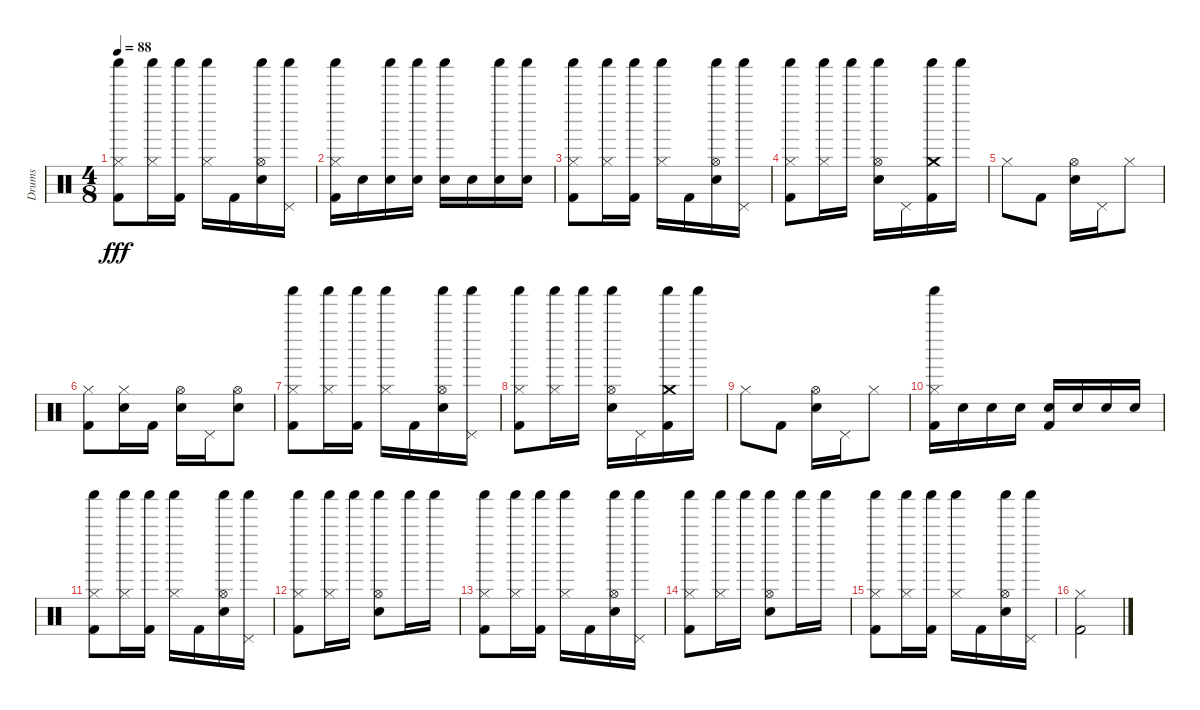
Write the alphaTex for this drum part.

\track ("Drums" "Drums") {instrument percussion}
\staff {score}
\articulation defaults
\ts (4 8)
\tempo 88
\clef neutral
\ks c
("Hi-Hat (closed)" "Shaker (hit)" "Kick (hit) 2").8{dy fff} ("Hi-Hat (closed)" "Shaker (hit)").16 ("Shaker (hit)" "Kick (hit) 2").16 ("Hi-Hat (closed)" "Shaker (hit)").16 "Kick (hit) 2".16 ("Hi-Hat (open)" "Shaker (hit)" "Snare (hit) 2").16 ("Pedal Hi-Hat (hit)" "Shaker (hit)").16 |
("Hi-Hat (closed)" "Shaker (hit)" "Kick (hit) 2").16 "Snare (hit) 2".16 ("Shaker (hit)" "Snare (hit) 2").16 ("Shaker (hit)" "Snare (hit) 2").16 ("Shaker (hit)" "Snare (hit) 2").16 "Snare (hit) 2".16 ("Shaker (hit)" "Snare (hit) 2").16 ("Shaker (hit)" "Snare (hit) 2").16 |
("Hi-Hat (closed)" "Shaker (hit)" "Kick (hit) 2").8 ("Hi-Hat (closed)" "Shaker (hit)").16 ("Shaker (hit)" "Kick (hit) 2").16 ("Hi-Hat (closed)" "Shaker (hit)").16 "Kick (hit) 2".16 ("Hi-Hat (open)" "Shaker (hit)" "Snare (hit) 2").16 ("Pedal Hi-Hat (hit)" "Shaker (hit)").16 |
("Hi-Hat (closed)" "Shaker (hit)" "Kick (hit) 2").8 ("Hi-Hat (closed)" "Shaker (hit)").16 "Shaker (hit)".16 ("Hi-Hat (open)" "Shaker (hit)" "Snare (hit) 2").16 "Pedal Hi-Hat (hit)".16 ("Crash medium (hit)" "Shaker (hit)" "Kick (hit) 2").16 "Shaker (hit)".16 |
"Hi-Hat (closed)".8 "Kick (hit) 2".8 ("Hi-Hat (open)" "Snare (hit) 2").16 "Pedal Hi-Hat (hit)".16 "Hi-Hat (closed)".8 |
("Hi-Hat (closed)" "Kick (hit) 2").8 ("Hi-Hat (closed)" "Snare (hit) 2").16 "Kick (hit) 2".16 ("Hi-Hat (open)" "Snare (hit) 2").16 "Pedal Hi-Hat (hit)".16 ("Hi-Hat (open)" "Snare (hit) 2").8 |
("Hi-Hat (closed)" "Shaker (hit)" "Kick (hit) 2").8 ("Hi-Hat (closed)" "Shaker (hit)").16 ("Shaker (hit)" "Kick (hit) 2").16 ("Hi-Hat (closed)" "Shaker (hit)").16 "Kick (hit) 2".16 ("Hi-Hat (open)" "Shaker (hit)" "Snare (hit) 2").16 ("Pedal Hi-Hat (hit)" "Shaker (hit)").16 |
("Hi-Hat (closed)" "Shaker (hit)" "Kick (hit) 2").8 ("Hi-Hat (closed)" "Shaker (hit)").16 "Shaker (hit)".16 ("Hi-Hat (open)" "Shaker (hit)" "Snare (hit) 2").16 "Pedal Hi-Hat (hit)".16 ("Crash medium (hit)" "Shaker (hit)" "Kick (hit) 2").16 "Shaker (hit)".16 |
"Hi-Hat (closed)".8 "Kick (hit) 2".8 ("Hi-Hat (open)" "Snare (hit) 2").16 "Pedal Hi-Hat (hit)".16 "Hi-Hat (closed)".8 |
("Hi-Hat (closed)" "Shaker (hit)" "Kick (hit) 2").16 "Snare (hit) 2".16 "Snare (hit) 2".16 "Snare (hit) 2".16 ("Snare (hit) 2" "Kick (hit) 2").16 "Snare (hit) 2".16 "Snare (hit) 2".16 "Snare (hit) 2".16 |
("Hi-Hat (closed)" "Shaker (hit)" "Kick (hit) 2").8 ("Hi-Hat (closed)" "Shaker (hit)").16 ("Shaker (hit)" "Kick (hit) 2").16 ("Hi-Hat (closed)" "Shaker (hit)").16 "Kick (hit) 2".16 ("Hi-Hat (open)" "Shaker (hit)" "Snare (hit) 2").16 ("Pedal Hi-Hat (hit)" "Shaker (hit)").16 |
("Hi-Hat (closed)" "Shaker (hit)" "Kick (hit) 2").8 ("Hi-Hat (closed)" "Shaker (hit)").16 "Shaker (hit)".16 ("Hi-Hat (open)" "Shaker (hit)" "Snare (hit) 2").8 "Shaker (hit)".16 "Shaker (hit)".16 |
("Hi-Hat (closed)" "Shaker (hit)" "Kick (hit) 2").8 ("Hi-Hat (closed)" "Shaker (hit)").16 ("Shaker (hit)" "Kick (hit) 2").16 ("Hi-Hat (closed)" "Shaker (hit)").16 "Kick (hit) 2".16 ("Hi-Hat (open)" "Shaker (hit)" "Snare (hit) 2").16 ("Pedal Hi-Hat (hit)" "Shaker (hit)").16 |
("Hi-Hat (closed)" "Shaker (hit)" "Kick (hit) 2").8 ("Hi-Hat (closed)" "Shaker (hit)").16 "Shaker (hit)".16 ("Hi-Hat (open)" "Shaker (hit)" "Snare (hit) 2").8 "Shaker (hit)".16 "Shaker (hit)".16 |
("Hi-Hat (closed)" "Shaker (hit)" "Kick (hit) 2").8 ("Hi-Hat (closed)" "Shaker (hit)").16 ("Shaker (hit)" "Kick (hit) 2").16 ("Hi-Hat (closed)" "Shaker (hit)").16 "Kick (hit) 2".16 ("Hi-Hat (open)" "Shaker (hit)" "Snare (hit) 2").16 ("Pedal Hi-Hat (hit)" "Shaker (hit)").16 |
("Hi-Hat (closed)" "Kick (hit) 2").2
